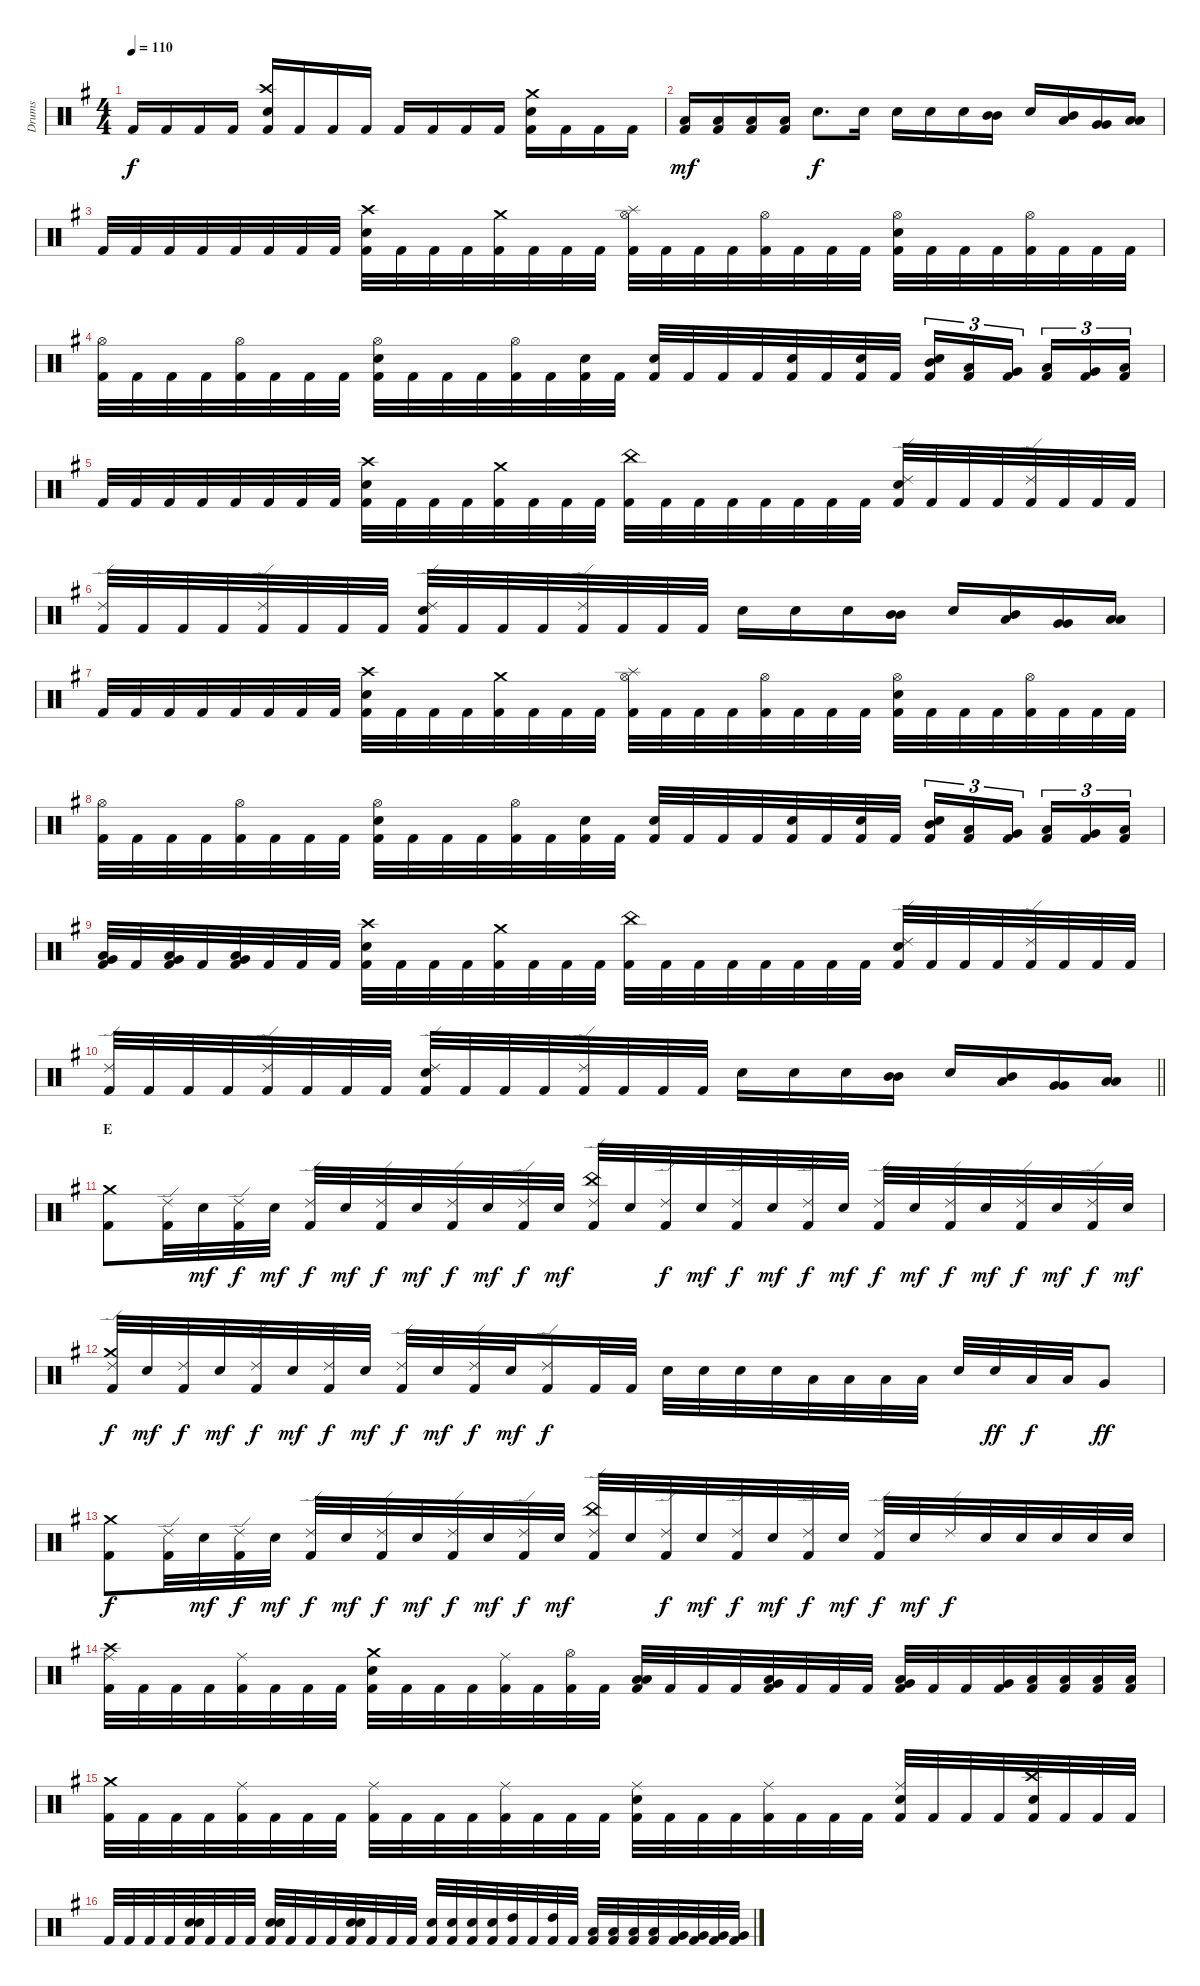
\track ("Drums" "Drums") {instrument percussion}
\staff {score}
\articulation defaults
\ts (4 4)
\tempo 110
\clef neutral
\ks eminor "Kick (hit) 2".16{dy f} "Kick (hit) 2".16 "Kick (hit) 2".16 "Kick (hit) 2".16
("Crash high (hit)" "Snare (hit) 2" "Kick (hit) 2").16 "Kick (hit) 2".16 "Kick (hit) 2".16 "Kick (hit) 2".16 "Kick (hit) 2".16 "Kick (hit) 2".16 "Kick (hit) 2".16 "Kick (hit) 2".16 ("Crash medium (hit)" "Snare (hit) 2" "Kick (hit) 2").16 "Kick (hit) 2".16 "Kick (hit) 2".16 "Kick (hit) 2".16 |
("Low Tom (hit)" "Kick (hit) 2").16{dy mf} ("Low Tom (hit)" "Kick (hit) 2").16 ("Low Tom (hit)" "Kick (hit) 2").16 ("Low Tom (hit)" "Kick (hit) 2").16 "Snare (hit) 2".8{d dy f} "Snare (hit) 2".16 "Snare (hit) 2".16 "Snare (hit) 2".16 "Snare (hit) 2".16 ("Mid Tom (hit)" "Mid Tom (hit)").16 "Snare (hit) 2".16 ("Mid Tom (hit)" "Low Tom (hit)").16 ("Very Low Tom (hit)" "Very Low Tom (hit)").16 ("Low Floor Tom (hit)" "Low Floor Tom (hit)").16 |
"Kick (hit) 2".32 "Kick (hit) 2".32 "Kick (hit) 2".32 "Kick (hit) 2".32 "Kick (hit) 2".32 "Kick (hit) 2".32 "Kick (hit) 2".32 "Kick (hit) 2".32 ("Crash high (hit)" "Snare (hit) 2" "Kick (hit) 2").32 "Kick (hit) 2".32 "Kick (hit) 2".32 "Kick (hit) 2".32 ("Crash medium (hit)" "Kick (hit) 2").32 "Kick (hit) 2".32 "Kick (hit) 2".32 "Kick (hit) 2".32 ("Splash (hit)" "Hi-Hat (open)" "Kick (hit) 2").32 "Kick (hit) 2".32 "Kick (hit) 2".32 "Kick (hit) 2".32 ("Hi-Hat (open)" "Kick (hit) 2").32 "Kick (hit) 2".32 "Kick (hit) 2".32 "Kick (hit) 2".32 ("Hi-Hat (open)" "Snare (hit) 2" "Kick (hit) 2").32 "Kick (hit) 2".32 "Kick (hit) 2".32 "Kick (hit) 2".32 ("Hi-Hat (open)" "Kick (hit) 2").32 "Kick (hit) 2".32 "Kick (hit) 2".32 "Kick (hit) 2".32 |
("Hi-Hat (open)" "Kick (hit) 2").32 "Kick (hit) 2".32 "Kick (hit) 2".32 "Kick (hit) 2".32 ("Hi-Hat (open)" "Kick (hit) 2").32 "Kick (hit) 2".32 "Kick (hit) 2".32 "Kick (hit) 2".32 ("Hi-Hat (open)" "Snare (hit) 2" "Kick (hit) 2").32 "Kick (hit) 2".32 "Kick (hit) 2".32 "Kick (hit) 2".32 ("Hi-Hat (open)" "Kick (hit) 2").32 "Kick (hit) 2".32 ("Snare (hit) 2" "Kick (hit) 2").32 "Kick (hit) 2".32 ("Snare (hit) 2" "Kick (hit) 2").32 "Kick (hit) 2".32 "Kick (hit) 2".32 "Kick (hit) 2".32 ("Snare (hit) 2" "Kick (hit) 2").32 "Kick (hit) 2".32 ("Snare (hit) 2" "Kick (hit) 2").32 "Kick (hit) 2".32 ("Mid Tom (hit)" "Snare (hit) 2" "Kick (hit) 2").16{tu (3 2)} ("Low Tom (hit)" "Kick (hit) 2").16{tu (3 2)} ("Very Low Tom (hit)" "Kick (hit) 2").16{tu (3 2) beam splitsecondary} ("Low Tom (hit)" "Kick (hit) 2").16{tu (3 2)} ("Very Low Tom (hit)" "Kick (hit) 2").16{tu (3 2)} ("Low Floor Tom (hit)" "Kick (hit) 2").16{tu (3 2)} |
"Kick (hit) 2".32 "Kick (hit) 2".32 "Kick (hit) 2".32 "Kick (hit) 2".32 "Kick (hit) 2".32 "Kick (hit) 2".32 "Kick (hit) 2".32 "Kick (hit) 2".32 ("Crash high (hit)" "Snare (hit) 2" "Kick (hit) 2").32 "Kick (hit) 2".32 "Kick (hit) 2".32 "Kick (hit) 2".32 ("Crash medium (hit)" "Kick (hit) 2").32 "Kick (hit) 2".32 "Kick (hit) 2".32 "Kick (hit) 2".32 ("China (hit)" "Kick (hit) 2").32 "Kick (hit) 2".32 "Kick (hit) 2".32 "Kick (hit) 2".32 "Kick (hit) 2".32 "Kick (hit) 2".32 "Kick (hit) 2".32 "Kick (hit) 2".32 ("Ride (edge) 2" "Snare (hit) 2" "Kick (hit) 2").32 "Kick (hit) 2".32 "Kick (hit) 2".32 "Kick (hit) 2".32 ("Ride (edge) 2" "Kick (hit) 2").32 "Kick (hit) 2".32 "Kick (hit) 2".32 "Kick (hit) 2".32 |
("Ride (edge) 2" "Kick (hit) 2").32 "Kick (hit) 2".32 "Kick (hit) 2".32 "Kick (hit) 2".32 ("Ride (edge) 2" "Kick (hit) 2").32 "Kick (hit) 2".32 "Kick (hit) 2".32 "Kick (hit) 2".32 ("Ride (edge) 2" "Snare (hit) 2" "Kick (hit) 2").32 "Kick (hit) 2".32 "Kick (hit) 2".32 "Kick (hit) 2".32 ("Ride (edge) 2" "Kick (hit) 2").32 "Kick (hit) 2".32 "Kick (hit) 2".32 "Kick (hit) 2".32 "Snare (hit) 2".16 "Snare (hit) 2".16 "Snare (hit) 2".16 ("Mid Tom (hit)" "Mid Tom (hit)").16 "Snare (hit) 2".16 ("Mid Tom (hit)" "Low Tom (hit)").16 ("Very Low Tom (hit)" "Very Low Tom (hit)").16 ("Low Floor Tom (hit)" "Low Floor Tom (hit)").16 |
"Kick (hit) 2".32 "Kick (hit) 2".32 "Kick (hit) 2".32 "Kick (hit) 2".32 "Kick (hit) 2".32 "Kick (hit) 2".32 "Kick (hit) 2".32 "Kick (hit) 2".32 ("Crash high (hit)" "Snare (hit) 2" "Kick (hit) 2").32 "Kick (hit) 2".32 "Kick (hit) 2".32 "Kick (hit) 2".32 ("Crash medium (hit)" "Kick (hit) 2").32 "Kick (hit) 2".32 "Kick (hit) 2".32 "Kick (hit) 2".32 ("Splash (hit)" "Hi-Hat (open)" "Kick (hit) 2").32 "Kick (hit) 2".32 "Kick (hit) 2".32 "Kick (hit) 2".32 ("Hi-Hat (open)" "Kick (hit) 2").32 "Kick (hit) 2".32 "Kick (hit) 2".32 "Kick (hit) 2".32 ("Hi-Hat (open)" "Snare (hit) 2" "Kick (hit) 2").32 "Kick (hit) 2".32 "Kick (hit) 2".32 "Kick (hit) 2".32 ("Hi-Hat (open)" "Kick (hit) 2").32 "Kick (hit) 2".32 "Kick (hit) 2".32 "Kick (hit) 2".32 |
("Hi-Hat (open)" "Kick (hit) 2").32 "Kick (hit) 2".32 "Kick (hit) 2".32 "Kick (hit) 2".32 ("Hi-Hat (open)" "Kick (hit) 2").32 "Kick (hit) 2".32 "Kick (hit) 2".32 "Kick (hit) 2".32 ("Hi-Hat (open)" "Snare (hit) 2" "Kick (hit) 2").32 "Kick (hit) 2".32 "Kick (hit) 2".32 "Kick (hit) 2".32 ("Hi-Hat (open)" "Kick (hit) 2").32 "Kick (hit) 2".32 ("Snare (hit) 2" "Kick (hit) 2").32 "Kick (hit) 2".32 ("Snare (hit) 2" "Kick (hit) 2").32 "Kick (hit) 2".32 "Kick (hit) 2".32 "Kick (hit) 2".32 ("Snare (hit) 2" "Kick (hit) 2").32 "Kick (hit) 2".32 ("Snare (hit) 2" "Kick (hit) 2").32 "Kick (hit) 2".32 ("Mid Tom (hit)" "Snare (hit) 2" "Kick (hit) 2").16{tu (3 2)} ("Low Tom (hit)" "Kick (hit) 2").16{tu (3 2)} ("Very Low Tom (hit)" "Kick (hit) 2").16{tu (3 2) beam splitsecondary} ("Low Tom (hit)" "Kick (hit) 2").16{tu (3 2)} ("Very Low Tom (hit)" "Kick (hit) 2").16{tu (3 2)} ("Low Floor Tom (hit)" "Kick (hit) 2").16{tu (3 2)} |
("Very Low Tom (hit)" "Low Floor Tom (hit)" "Kick (hit) 2").32 "Kick (hit) 2".32 ("Very Low Tom (hit)" "Low Floor Tom (hit)" "Kick (hit) 2").32 "Kick (hit) 2".32 ("Very Low Tom (hit)" "Low Floor Tom (hit)" "Kick (hit) 2").32 "Kick (hit) 2".32 "Kick (hit) 2".32 "Kick (hit) 2".32 ("Crash high (hit)" "Snare (hit) 2" "Kick (hit) 2").32 "Kick (hit) 2".32 "Kick (hit) 2".32 "Kick (hit) 2".32 ("Crash medium (hit)" "Kick (hit) 2").32 "Kick (hit) 2".32 "Kick (hit) 2".32 "Kick (hit) 2".32 ("China (hit)" "Kick (hit) 2").32 "Kick (hit) 2".32 "Kick (hit) 2".32 "Kick (hit) 2".32 "Kick (hit) 2".32 "Kick (hit) 2".32 "Kick (hit) 2".32 "Kick (hit) 2".32 ("Ride (edge) 2" "Snare (hit) 2" "Kick (hit) 2").32 "Kick (hit) 2".32 "Kick (hit) 2".32 "Kick (hit) 2".32 ("Ride (edge) 2" "Kick (hit) 2").32 "Kick (hit) 2".32 "Kick (hit) 2".32 "Kick (hit) 2".32 |
\barLineRight lightlight
("Ride (edge) 2" "Kick (hit) 2").32 "Kick (hit) 2".32 "Kick (hit) 2".32 "Kick (hit) 2".32 ("Ride (edge) 2" "Kick (hit) 2").32 "Kick (hit) 2".32 "Kick (hit) 2".32 "Kick (hit) 2".32 ("Ride (edge) 2" "Snare (hit) 2" "Kick (hit) 2").32 "Kick (hit) 2".32 "Kick (hit) 2".32 "Kick (hit) 2".32 ("Ride (edge) 2" "Kick (hit) 2").32 "Kick (hit) 2".32 "Kick (hit) 2".32 "Kick (hit) 2".32 "Snare (hit) 2".16 "Snare (hit) 2".16 "Snare (hit) 2".16 ("Mid Tom (hit)" "Mid Tom (hit)").16 "Snare (hit) 2".16 ("Mid Tom (hit)" "Low Tom (hit)").16 ("Very Low Tom (hit)" "Very Low Tom (hit)").16 ("Low Floor Tom (hit)" "Low Floor Tom (hit)").16 |
\section ("" "E")
("Crash medium (hit)" "Kick (hit) 2").8 ("Ride (edge) 2" "Kick (hit) 2").32 "Snare (hit) 2".32{dy mf} ("Ride (edge) 2" "Kick (hit) 2").32{dy f} "Snare (hit) 2".32{dy mf} ("Ride (edge) 2" "Kick (hit) 2").32{dy f} "Snare (hit) 2".32{dy mf} ("Ride (edge) 2" "Kick (hit) 2").32{dy f} "Snare (hit) 2".32{dy mf} ("Ride (edge) 2" "Kick (hit) 2").32{dy f} "Snare (hit) 2".32{dy mf} ("Ride (edge) 2" "Kick (hit) 2").32{dy f} "Snare (hit) 2".32{dy mf} ("China (hit)" "Ride (edge) 2" "Kick (hit) 2").32 "Snare (hit) 2".32 ("Ride (edge) 2" "Kick (hit) 2").32{dy f} "Snare (hit) 2".32{dy mf} ("Ride (edge) 2" "Kick (hit) 2").32{dy f} "Snare (hit) 2".32{dy mf} ("Ride (edge) 2" "Kick (hit) 2").32{dy f} "Snare (hit) 2".32{dy mf} ("Ride (edge) 2" "Kick (hit) 2").32{dy f} "Snare (hit) 2".32{dy mf} ("Ride (edge) 2" "Kick (hit) 2").32{dy f} "Snare (hit) 2".32{dy mf} ("Ride (edge) 2" "Kick (hit) 2").32{dy f} "Snare (hit) 2".32{dy mf} ("Ride (edge) 2" "Kick (hit) 2").32{dy f} "Snare (hit) 2".32{dy mf} |
("Crash medium (hit)" "Ride (edge) 2" "Kick (hit) 2").32{dy f} "Snare (hit) 2".32{dy mf} ("Ride (edge) 2" "Kick (hit) 2").32{dy f} "Snare (hit) 2".32{dy mf} ("Ride (edge) 2" "Kick (hit) 2").32{dy f} "Snare (hit) 2".32{dy mf} ("Ride (edge) 2" "Kick (hit) 2").32{dy f} "Snare (hit) 2".32{dy mf} ("Ride (edge) 2" "Kick (hit) 2").32{dy f} "Snare (hit) 2".32{dy mf} ("Ride (edge) 2" "Kick (hit) 2").32{dy f} "Snare (hit) 2".32{dy mf} ("Ride (edge) 2" "Kick (hit) 2").16{dy f} "Kick (hit) 2".32 "Kick (hit) 2".32 "Snare (hit) 2".32 "Snare (hit) 2".32 "Snare (hit) 2".32 "Snare (hit) 2".32 "Low Tom (hit)".32 "Low Tom (hit)".32 "Low Tom (hit)".32 "Low Tom (hit)".32 "Snare (hit) 2".32 "Snare (hit) 2".32{dy ff} "Low Tom (hit)".32{dy f} "Low Tom (hit)".32 "Very Low Tom (hit)".8{dy ff} |
("Crash medium (hit)" "Kick (hit) 2").8{dy f} ("Ride (edge) 2" "Kick (hit) 2").32 "Snare (hit) 2".32{dy mf} ("Ride (edge) 2" "Kick (hit) 2").32{dy f} "Snare (hit) 2".32{dy mf} ("Ride (edge) 2" "Kick (hit) 2").32{dy f} "Snare (hit) 2".32{dy mf} ("Ride (edge) 2" "Kick (hit) 2").32{dy f} "Snare (hit) 2".32{dy mf} ("Ride (edge) 2" "Kick (hit) 2").32{dy f} "Snare (hit) 2".32{dy mf} ("Ride (edge) 2" "Kick (hit) 2").32{dy f} "Snare (hit) 2".32{dy mf} ("China (hit)" "Ride (edge) 2" "Kick (hit) 2").32 "Snare (hit) 2".32 ("Ride (edge) 2" "Kick (hit) 2").32{dy f} "Snare (hit) 2".32{dy mf} ("Ride (edge) 2" "Kick (hit) 2").32{dy f} "Snare (hit) 2".32{dy mf} ("Ride (edge) 2" "Kick (hit) 2").32{dy f} "Snare (hit) 2".32{dy mf} ("Ride (edge) 2" "Kick (hit) 2").32{dy f} "Snare (hit) 2".32{dy mf} "Ride (edge) 2".32{dy f} "Snare (hit) 2".32 "Snare (hit) 2".32 "Snare (hit) 2".32 "Snare (hit) 2".32 "Snare (hit) 2".32 |
("Crash high (hit)" "Ride (middle)" "Kick (hit) 2").32 "Kick (hit) 2".32 "Kick (hit) 2".32 "Kick (hit) 2".32 ("Ride (middle)" "Kick (hit) 2").32 "Kick (hit) 2".32 "Kick (hit) 2".32 "Kick (hit) 2".32 ("Crash medium (hit)" "Electric Snare (hit)" "Kick (hit) 2").32 "Kick (hit) 2".32 "Kick (hit) 2".32 "Kick (hit) 2".32 ("Ride (middle)" "Kick (hit) 2").32 "Kick (hit) 2".32 ("Hi-Hat (open)" "Kick (hit) 2").32 "Kick (hit) 2".32 ("Low Tom (hit)" "Low Tom (hit)" "Kick (hit) 2").32 "Kick (hit) 2".32 "Kick (hit) 2".32 "Kick (hit) 2".32 ("Low Tom (hit)" "Very Low Tom (hit)" "Kick (hit) 2").32 "Kick (hit) 2".32 "Kick (hit) 2".32 "Kick (hit) 2".32 ("Very Low Tom (hit)" "Low Floor Tom (hit)" "Kick (hit) 2").32 "Kick (hit) 2".32 "Kick (hit) 2".32 ("Very Low Tom (hit)" "Kick (hit) 2").32 ("Low Floor Tom (hit)" "Kick (hit) 2").32 ("Low Floor Tom (hit)" "Kick (hit) 2").32 ("Low Floor Tom (hit)" "Kick (hit) 2").32 ("Low Floor Tom (hit)" "Kick (hit) 2").32 |
("Crash medium (hit)" "Kick (hit) 2").32 "Kick (hit) 2".32 "Kick (hit) 2".32 "Kick (hit) 2".32 ("Ride (middle)" "Kick (hit) 2").32 "Kick (hit) 2".32 "Kick (hit) 2".32 "Kick (hit) 2".32 ("Ride (middle)" "Kick (hit) 2").32 "Kick (hit) 2".32 "Kick (hit) 2".32 "Kick (hit) 2".32 ("Ride (middle)" "Kick (hit) 2").32 "Kick (hit) 2".32 "Kick (hit) 2".32 "Kick (hit) 2".32 ("Ride (middle)" "Electric Snare (hit)" "Kick (hit) 2").32 "Kick (hit) 2".32 "Kick (hit) 2".32 "Kick (hit) 2".32 ("Ride (middle)" "Kick (hit) 2").32 "Kick (hit) 2".32 "Kick (hit) 2".32 "Kick (hit) 2".32 ("Ride (middle)" "Electric Snare (hit)" "Kick (hit) 2").32 "Kick (hit) 2".32 "Kick (hit) 2".32 "Kick (hit) 2".32 ("Crash high (hit)" "Electric Snare (hit)" "Kick (hit) 2").32 "Kick (hit) 2".32 "Kick (hit) 2".32 "Kick (hit) 2".32 |
"Kick (hit) 2".32 "Kick (hit) 2".32 "Kick (hit) 2".32 "Kick (hit) 2".32 ("Electric Snare (hit)" "Electric Snare (hit)" "Kick (hit) 2").32 "Kick (hit) 2".32 "Kick (hit) 2".32 "Kick (hit) 2".32 ("Electric Snare (hit)" "Electric Snare (hit)" "Kick (hit) 2").32 "Kick (hit) 2".32 "Kick (hit) 2".32 "Kick (hit) 2".32 ("Electric Snare (hit)" "Electric Snare (hit)" "Kick (hit) 2").32 "Kick (hit) 2".32 "Kick (hit) 2".32 "Kick (hit) 2".32 ("Electric Snare (hit)" "Kick (hit) 2").32 ("Electric Snare (hit)" "Kick (hit) 2").32 ("Electric Snare (hit)" "Kick (hit) 2").32 ("Electric Snare (hit)" "Kick (hit) 2").32 ("High Tom (hit)" "Kick (hit) 2").32 "Kick (hit) 2".32 ("High Tom (hit)" "Kick (hit) 2").32 "Kick (hit) 2".32 ("Low Tom (hit)" "Kick (hit) 2").32 ("Low Tom (hit)" "Kick (hit) 2").32 ("Low Tom (hit)" "Kick (hit) 2").32 ("Low Tom (hit)" "Kick (hit) 2").32 ("Very Low Tom (hit)" "Kick (hit) 2").32 ("Very Low Tom (hit)" "Kick (hit) 2").32 ("Very Low Tom (hit)" "Kick (hit) 2").32 ("Very Low Tom (hit)" "Kick (hit) 2").32
